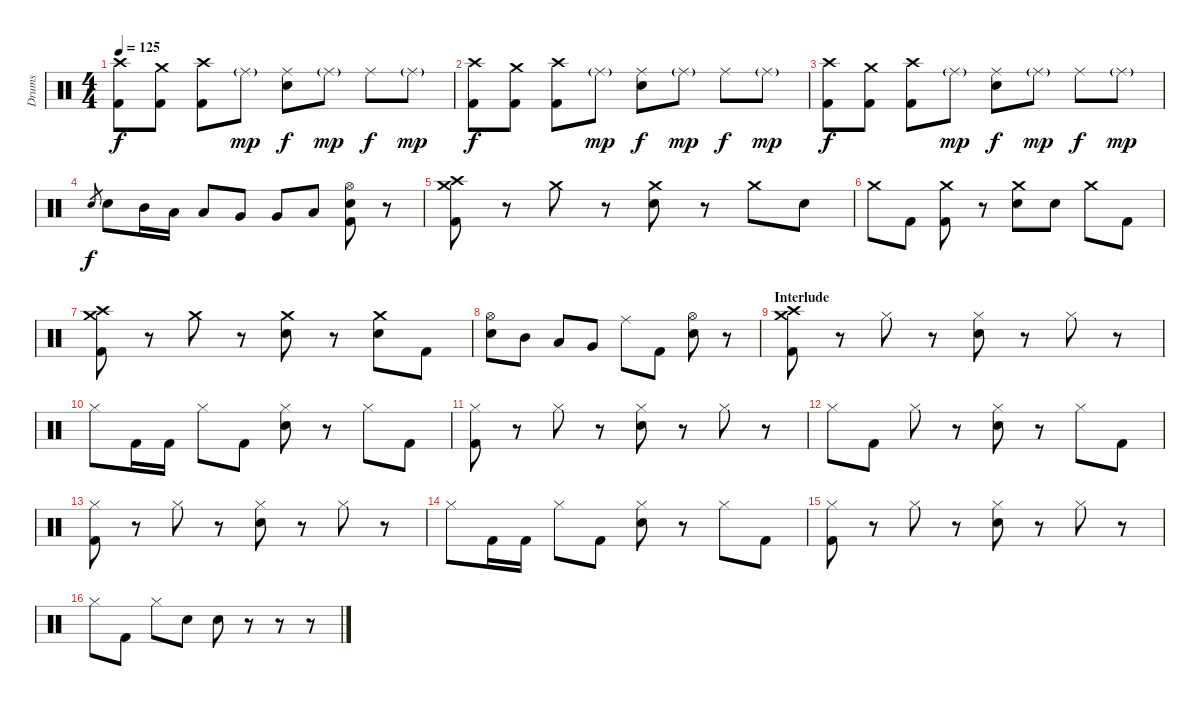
\track ("Drums" "Drums") {instrument percussion}
\staff {score}
\articulation defaults
\ts (4 4)
\tempo 125
\clef neutral
\ks c
("Crash high (hit)" "Kick (hit) 2").8{dy f} ("Crash medium (hit)" "Kick (hit) 2").8 ("Crash high (hit)" "Kick (hit) 2").8 "Ride (middle)"{g}.8{dy mp} ("Ride (middle)" "Electric Snare (hit)").8{dy f} "Ride (middle)"{g}.8{dy mp} "Ride (middle)".8{dy f} "Ride (middle)"{g}.8{dy mp} |
("Crash high (hit)" "Kick (hit) 2").8{dy f} ("Crash medium (hit)" "Kick (hit) 2").8 ("Crash high (hit)" "Kick (hit) 2").8 "Ride (middle)"{g}.8{dy mp} ("Ride (middle)" "Electric Snare (hit)").8{dy f} "Ride (middle)"{g}.8{dy mp} "Ride (middle)".8{dy f} "Ride (middle)"{g}.8{dy mp} |
("Crash high (hit)" "Kick (hit) 2").8{dy f} ("Crash medium (hit)" "Kick (hit) 2").8 ("Crash high (hit)" "Kick (hit) 2").8 "Ride (middle)"{g}.8{dy mp} ("Ride (middle)" "Electric Snare (hit)").8{dy f} "Ride (middle)"{g}.8{dy mp} "Ride (middle)".8{dy f} "Ride (middle)"{g}.8{dy mp} |
"Electric Snare (hit)".8{gr dy f} "Electric Snare (hit)".8 "Mid Tom (hit)".16 "Low Tom (hit)".16 "Low Tom (hit)".8 "Very Low Tom (hit)".8 "Very Low Tom (hit)".8 "Low Floor Tom (hit)".8 ("Hi-Hat (open)" "Electric Snare (hit)" "Kick (hit) 2").8 r.8 |
("Crash medium (hit)" "Crash high (hit)" "Kick (hit) 2").8 r.8 "Crash medium (hit)".8 r.8 ("Crash medium (hit)" "Electric Snare (hit)").8 r.8 "Crash medium (hit)".8 "Electric Snare (hit)".8 |
"Crash medium (hit)".8 "Kick (hit) 2".8 ("Crash medium (hit)" "Kick (hit) 2").8 r.8 ("Crash medium (hit)" "Electric Snare (hit)").8 "Electric Snare (hit)".8 "Crash medium (hit)".8 "Kick (hit) 2".8 |
("Crash medium (hit)" "Crash high (hit)" "Kick (hit) 2").8 r.8 "Crash medium (hit)".8 r.8 ("Crash medium (hit)" "Electric Snare (hit)").8 r.8 ("Crash medium (hit)" "Electric Snare (hit)").8 "Kick (hit) 2".8 |
("Hi-Hat (open)" "Electric Snare (hit)").8 "Mid Tom (hit)".8 "Low Tom (hit)".8 "Very Low Tom (hit)".8 "Ride (middle)".8 "Kick (hit) 2".8 ("Hi-Hat (open)" "Electric Snare (hit)").8 r.8 |
\section ("" "Interlude")
("Crash high (hit)" "Crash medium (hit)" "Kick (hit) 2").8 r.8 "Hi-Hat (closed)".8 r.8 ("Hi-Hat (closed)" "Electric Snare (hit)").8 r.8 "Hi-Hat (closed)".8 r.8 |
"Hi-Hat (closed)".8 "Kick (hit) 2".16 "Kick (hit) 2".16 "Hi-Hat (closed)".8 "Kick (hit) 2".8 ("Hi-Hat (closed)" "Electric Snare (hit)").8 r.8 "Hi-Hat (closed)".8 "Kick (hit) 2".8 |
("Hi-Hat (closed)" "Kick (hit) 2").8 r.8 "Hi-Hat (closed)".8 r.8 ("Hi-Hat (closed)" "Electric Snare (hit)").8 r.8 "Hi-Hat (closed)".8 r.8 |
"Hi-Hat (closed)".8 "Kick (hit) 2".8 "Hi-Hat (closed)".8 r.8 ("Hi-Hat (closed)" "Electric Snare (hit)").8 r.8 "Hi-Hat (closed)".8 "Kick (hit) 2".8 |
("Hi-Hat (closed)" "Kick (hit) 2").8 r.8 "Hi-Hat (closed)".8 r.8 ("Hi-Hat (closed)" "Electric Snare (hit)").8 r.8 "Hi-Hat (closed)".8 r.8 |
"Hi-Hat (closed)".8 "Kick (hit) 2".16 "Kick (hit) 2".16 "Hi-Hat (closed)".8 "Kick (hit) 2".8 ("Hi-Hat (closed)" "Electric Snare (hit)").8 r.8 "Hi-Hat (closed)".8 "Kick (hit) 2".8 |
("Hi-Hat (closed)" "Kick (hit) 2").8 r.8 "Hi-Hat (closed)".8 r.8 ("Hi-Hat (closed)" "Electric Snare (hit)").8 r.8 "Hi-Hat (closed)".8 r.8 |
"Hi-Hat (closed)".8 "Kick (hit) 2".8 "Hi-Hat (closed)".8 "Electric Snare (hit)".8 "Electric Snare (hit)".8 r.8 r.8 r.8
